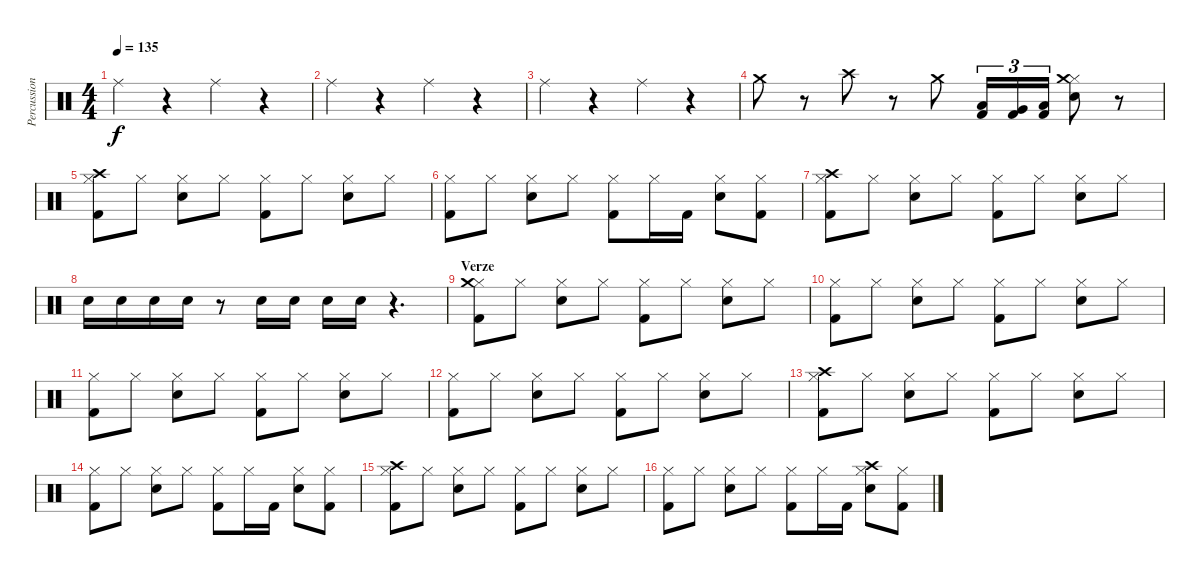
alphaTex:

\track ("Percussion" "Percussion") {instrument percussion}
\staff {score}
\articulation defaults
\ts (4 4)
\tempo 135
\clef neutral
\ks c "Ride (middle)".4{dy f}
r.4 "Ride (middle)".4 r.4 |
"Ride (middle)".4 r.4 "Ride (middle)".4 r.4 |
"Ride (middle)".4 r.4 "Ride (middle)".4 r.4 |
"Crash medium (hit)".8 r.8 "Crash high (hit)".8 r.8 "Crash medium (hit)".8 ("Kick (hit) 2" "Low Tom (hit)").16{tu (3 2)} ("Kick (hit) 2" "Very Low Tom (hit)").16{tu (3 2)} ("Kick (hit) 2" "Low Floor Tom (hit)").16{tu (3 2)} ("Hi-Hat (closed)" "Crash medium (hit)" "Electric Snare (hit)").8 r.8 |
("Hi-Hat (closed)" "Kick (hit) 2" "Crash high (hit)").8 "Hi-Hat (closed)".8 ("Hi-Hat (closed)" "Electric Snare (hit)").8 "Hi-Hat (closed)".8 ("Hi-Hat (closed)" "Kick (hit) 2").8 "Hi-Hat (closed)".8 ("Hi-Hat (closed)" "Electric Snare (hit)").8 "Hi-Hat (closed)".8 |
("Hi-Hat (closed)" "Kick (hit) 2").8 "Hi-Hat (closed)".8 ("Hi-Hat (closed)" "Electric Snare (hit)").8 "Hi-Hat (closed)".8 ("Hi-Hat (closed)" "Kick (hit) 2").8 "Hi-Hat (closed)".16 "Kick (hit) 2".16 ("Hi-Hat (closed)" "Electric Snare (hit)").8 ("Hi-Hat (closed)" "Kick (hit) 2").8 |
("Hi-Hat (closed)" "Kick (hit) 2" "Crash high (hit)").8 "Hi-Hat (closed)".8 ("Hi-Hat (closed)" "Electric Snare (hit)").8 "Hi-Hat (closed)".8 ("Hi-Hat (closed)" "Kick (hit) 2").8 "Hi-Hat (closed)".8 ("Hi-Hat (closed)" "Electric Snare (hit)").8 "Hi-Hat (closed)".8 |
"Electric Snare (hit)".16 "Electric Snare (hit)".16 "Electric Snare (hit)".16 "Electric Snare (hit)".16 r.8 "Electric Snare (hit)".16 "Electric Snare (hit)".16 "Electric Snare (hit)".16 "Electric Snare (hit)".16 r.4{d} |
\section ("" "Verze")
("Hi-Hat (closed)" "Kick (hit) 2" "Crash medium (hit)").8 "Hi-Hat (closed)".8 ("Hi-Hat (closed)" "Electric Snare (hit)").8 "Hi-Hat (closed)".8 ("Hi-Hat (closed)" "Kick (hit) 2").8 "Hi-Hat (closed)".8 ("Hi-Hat (closed)" "Electric Snare (hit)").8 "Hi-Hat (closed)".8 |
("Hi-Hat (closed)" "Kick (hit) 2").8 "Hi-Hat (closed)".8 ("Hi-Hat (closed)" "Electric Snare (hit)").8 "Hi-Hat (closed)".8 ("Hi-Hat (closed)" "Kick (hit) 2").8 "Hi-Hat (closed)".8 ("Hi-Hat (closed)" "Electric Snare (hit)").8 "Hi-Hat (closed)".8 |
("Hi-Hat (closed)" "Kick (hit) 2").8 "Hi-Hat (closed)".8 ("Hi-Hat (closed)" "Electric Snare (hit)").8 "Hi-Hat (closed)".8 ("Hi-Hat (closed)" "Kick (hit) 2").8 "Hi-Hat (closed)".8 ("Hi-Hat (closed)" "Electric Snare (hit)").8 "Hi-Hat (closed)".8 |
("Hi-Hat (closed)" "Kick (hit) 2").8 "Hi-Hat (closed)".8 ("Hi-Hat (closed)" "Electric Snare (hit)").8 "Hi-Hat (closed)".8 ("Hi-Hat (closed)" "Kick (hit) 2").8 "Hi-Hat (closed)".8 ("Hi-Hat (closed)" "Electric Snare (hit)").8 "Hi-Hat (closed)".8 |
("Hi-Hat (closed)" "Kick (hit) 2" "Crash high (hit)").8 "Hi-Hat (closed)".8 ("Hi-Hat (closed)" "Electric Snare (hit)").8 "Hi-Hat (closed)".8 ("Hi-Hat (closed)" "Kick (hit) 2").8 "Hi-Hat (closed)".8 ("Hi-Hat (closed)" "Electric Snare (hit)").8 "Hi-Hat (closed)".8 |
("Hi-Hat (closed)" "Kick (hit) 2").8 "Hi-Hat (closed)".8 ("Hi-Hat (closed)" "Electric Snare (hit)").8 "Hi-Hat (closed)".8 ("Hi-Hat (closed)" "Kick (hit) 2").8 "Hi-Hat (closed)".16 "Kick (hit) 2".16 ("Hi-Hat (closed)" "Electric Snare (hit)").8 ("Hi-Hat (closed)" "Kick (hit) 2").8 |
("Hi-Hat (closed)" "Kick (hit) 2" "Crash high (hit)").8 "Hi-Hat (closed)".8 ("Hi-Hat (closed)" "Electric Snare (hit)").8 "Hi-Hat (closed)".8 ("Hi-Hat (closed)" "Kick (hit) 2").8 "Hi-Hat (closed)".8 ("Hi-Hat (closed)" "Electric Snare (hit)").8 "Hi-Hat (closed)".8 |
("Hi-Hat (closed)" "Kick (hit) 2").8 "Hi-Hat (closed)".8 ("Hi-Hat (closed)" "Electric Snare (hit)").8 "Hi-Hat (closed)".8 ("Hi-Hat (closed)" "Kick (hit) 2").8 "Hi-Hat (closed)".16 "Kick (hit) 2".16 ("Hi-Hat (closed)" "Crash high (hit)" "Electric Snare (hit)").8 ("Hi-Hat (closed)" "Kick (hit) 2").8
